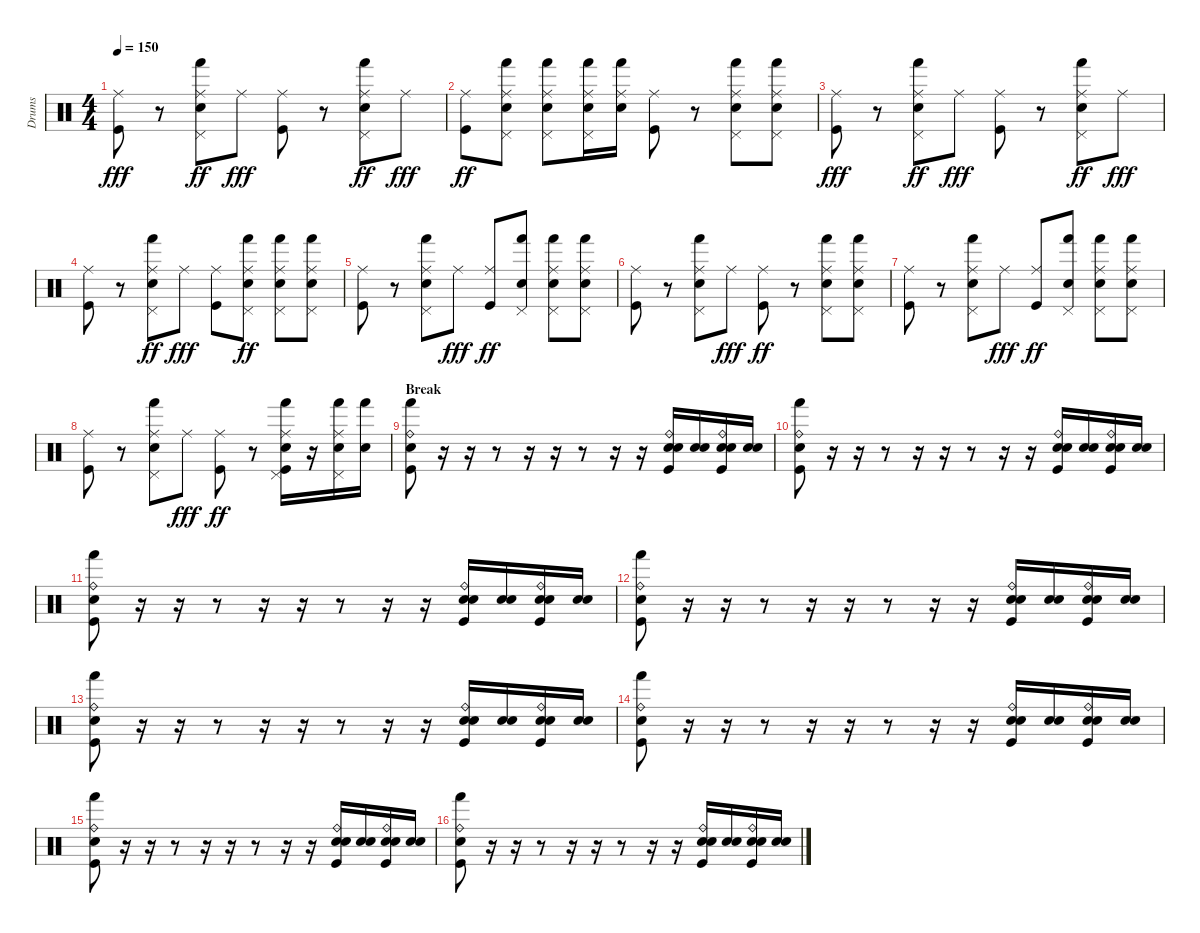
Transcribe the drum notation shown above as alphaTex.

\track ("Drums" "Drums") {instrument percussion}
\staff {score}
\articulation defaults
\ts (4 4)
\tempo 150
\clef neutral
\ks c
("Ride (middle)" "Kick (hit)").8{dy fff} r.8 ("Ride (middle)" "Pedal Hi-Hat (hit)" "Hand (hit)" "Electric Snare (hit)").8{dy ff} "Ride (middle)".8{dy fff} ("Ride (middle)" "Kick (hit)").8 r.8 ("Ride (middle)" "Pedal Hi-Hat (hit)" "Hand (hit)" "Electric Snare (hit)").8{dy ff} "Ride (middle)".8{dy fff} |
("Ride (middle)" "Kick (hit)").8{dy ff} ("Ride (middle)" "Pedal Hi-Hat (hit)" "Hand (hit)" "Electric Snare (hit)").8 ("Ride (middle)" "Pedal Hi-Hat (hit)" "Hand (hit)" "Electric Snare (hit)").8 ("Ride (middle)" "Pedal Hi-Hat (hit)" "Hand (hit)" "Electric Snare (hit)").16 ("Ride (middle)" "Hand (hit)" "Electric Snare (hit)").16 ("Ride (middle)" "Kick (hit)").8 r.8 ("Ride (middle)" "Pedal Hi-Hat (hit)" "Hand (hit)" "Electric Snare (hit)").8 ("Ride (middle)" "Pedal Hi-Hat (hit)" "Hand (hit)" "Electric Snare (hit)").8 |
("Ride (middle)" "Kick (hit)").8{dy fff} r.8 ("Ride (middle)" "Pedal Hi-Hat (hit)" "Hand (hit)" "Electric Snare (hit)").8{dy ff} "Ride (middle)".8{dy fff} ("Ride (middle)" "Kick (hit)").8 r.8 ("Ride (middle)" "Pedal Hi-Hat (hit)" "Hand (hit)" "Electric Snare (hit)").8{dy ff} "Ride (middle)".8{dy fff} |
("Ride (middle)" "Kick (hit)").8 r.8 ("Ride (middle)" "Pedal Hi-Hat (hit)" "Hand (hit)" "Electric Snare (hit)").8{dy ff} "Ride (middle)".8{dy fff} ("Ride (middle)" "Kick (hit)").8 ("Ride (middle)" "Pedal Hi-Hat (hit)" "Hand (hit)" "Electric Snare (hit)").8{dy ff} ("Ride (middle)" "Pedal Hi-Hat (hit)" "Hand (hit)" "Electric Snare (hit)").8 ("Ride (middle)" "Pedal Hi-Hat (hit)" "Hand (hit)" "Electric Snare (hit)").8 |
("Ride (middle)" "Kick (hit)").8 r.8 ("Ride (middle)" "Pedal Hi-Hat (hit)" "Hand (hit)" "Electric Snare (hit)").8 "Ride (middle)".8{dy fff} ("Ride (middle)" "Kick (hit)").8{dy ff} ("Pedal Hi-Hat (hit)" "Hand (hit)" "Electric Snare (hit)").8 ("Ride (middle)" "Pedal Hi-Hat (hit)" "Hand (hit)" "Electric Snare (hit)").8 ("Ride (middle)" "Pedal Hi-Hat (hit)" "Hand (hit)" "Electric Snare (hit)").8 |
("Ride (middle)" "Kick (hit)").8 r.8 ("Ride (middle)" "Pedal Hi-Hat (hit)" "Hand (hit)" "Electric Snare (hit)").8 "Ride (middle)".8{dy fff} ("Ride (middle)" "Kick (hit)").8{dy ff} r.8 ("Ride (middle)" "Pedal Hi-Hat (hit)" "Hand (hit)" "Electric Snare (hit)").8 ("Ride (middle)" "Pedal Hi-Hat (hit)" "Hand (hit)" "Electric Snare (hit)").8 |
("Ride (middle)" "Kick (hit)").8 r.8 ("Ride (middle)" "Pedal Hi-Hat (hit)" "Hand (hit)" "Electric Snare (hit)").8 "Ride (middle)".8{dy fff} ("Ride (middle)" "Kick (hit)").8{dy ff} ("Pedal Hi-Hat (hit)" "Hand (hit)" "Electric Snare (hit)").8 ("Ride (middle)" "Pedal Hi-Hat (hit)" "Hand (hit)" "Electric Snare (hit)").8 ("Ride (middle)" "Pedal Hi-Hat (hit)" "Hand (hit)" "Electric Snare (hit)").8 |
("Ride (middle)" "Kick (hit)").8 r.8 ("Ride (middle)" "Pedal Hi-Hat (hit)" "Hand (hit)" "Electric Snare (hit)").8 "Ride (middle)".8{dy fff} ("Ride (middle)" "Kick (hit)").8{dy ff} r.8 ("Ride (middle)" "Pedal Hi-Hat (hit)" "Hand (hit)" "Electric Snare (hit)" "Kick (hit)").16 r.16 ("Ride (middle)" "Pedal Hi-Hat (hit)" "Hand (hit)" "Electric Snare (hit)").16 ("Hand (hit)" "Electric Snare (hit)").16 |
\section ("" "Break")
("Ride (bell)" "Hand (hit)" "Electric Snare (hit)" "Kick (hit)").8 r.16 r.16 r.8 r.16 r.16 r.8 r.16 r.16 ("Ride (bell)" "Snare (hit) 2" "Electric Snare (hit)" "Kick (hit)").16 ("Snare (hit) 2" "Electric Snare (hit)").16 ("Ride (bell)" "Snare (hit) 2" "Electric Snare (hit)" "Kick (hit)").16 ("Snare (hit) 2" "Electric Snare (hit)").16 |
("Ride (bell)" "Hand (hit)" "Electric Snare (hit)" "Kick (hit)").8 r.16 r.16 r.8 r.16 r.16 r.8 r.16 r.16 ("Ride (bell)" "Snare (hit) 2" "Electric Snare (hit)" "Kick (hit)").16 ("Snare (hit) 2" "Electric Snare (hit)").16 ("Ride (bell)" "Snare (hit) 2" "Electric Snare (hit)" "Kick (hit)").16 ("Snare (hit) 2" "Electric Snare (hit)").16 |
("Ride (bell)" "Hand (hit)" "Electric Snare (hit)" "Kick (hit)").8 r.16 r.16 r.8 r.16 r.16 r.8 r.16 r.16 ("Ride (bell)" "Snare (hit) 2" "Electric Snare (hit)" "Kick (hit)").16 ("Snare (hit) 2" "Electric Snare (hit)").16 ("Ride (bell)" "Snare (hit) 2" "Electric Snare (hit)" "Kick (hit)").16 ("Snare (hit) 2" "Electric Snare (hit)").16 |
("Ride (bell)" "Hand (hit)" "Electric Snare (hit)" "Kick (hit)").8 r.16 r.16 r.8 r.16 r.16 r.8 r.16 r.16 ("Ride (bell)" "Snare (hit) 2" "Electric Snare (hit)" "Kick (hit)").16 ("Snare (hit) 2" "Electric Snare (hit)").16 ("Ride (bell)" "Snare (hit) 2" "Electric Snare (hit)" "Kick (hit)").16 ("Snare (hit) 2" "Electric Snare (hit)").16 |
("Ride (bell)" "Hand (hit)" "Electric Snare (hit)" "Kick (hit)").8 r.16 r.16 r.8 r.16 r.16 r.8 r.16 r.16 ("Ride (bell)" "Snare (hit) 2" "Electric Snare (hit)" "Kick (hit)").16 ("Snare (hit) 2" "Electric Snare (hit)").16 ("Ride (bell)" "Snare (hit) 2" "Electric Snare (hit)" "Kick (hit)").16 ("Snare (hit) 2" "Electric Snare (hit)").16 |
("Ride (bell)" "Hand (hit)" "Electric Snare (hit)" "Kick (hit)").8 r.16 r.16 r.8 r.16 r.16 r.8 r.16 r.16 ("Ride (bell)" "Snare (hit) 2" "Electric Snare (hit)" "Kick (hit)").16 ("Snare (hit) 2" "Electric Snare (hit)").16 ("Ride (bell)" "Snare (hit) 2" "Electric Snare (hit)" "Kick (hit)").16 ("Snare (hit) 2" "Electric Snare (hit)").16 |
("Ride (bell)" "Hand (hit)" "Electric Snare (hit)" "Kick (hit)").8 r.16 r.16 r.8 r.16 r.16 r.8 r.16 r.16 ("Ride (bell)" "Snare (hit) 2" "Electric Snare (hit)" "Kick (hit)").16 ("Snare (hit) 2" "Electric Snare (hit)").16 ("Ride (bell)" "Snare (hit) 2" "Electric Snare (hit)" "Kick (hit)").16 ("Snare (hit) 2" "Electric Snare (hit)").16 |
("Ride (bell)" "Hand (hit)" "Electric Snare (hit)" "Kick (hit)").8 r.16 r.16 r.8 r.16 r.16 r.8 r.16 r.16 ("Ride (bell)" "Snare (hit) 2" "Electric Snare (hit)" "Kick (hit)").16 ("Snare (hit) 2" "Electric Snare (hit)").16 ("Ride (bell)" "Snare (hit) 2" "Electric Snare (hit)" "Kick (hit)").16 ("Snare (hit) 2" "Electric Snare (hit)").16
